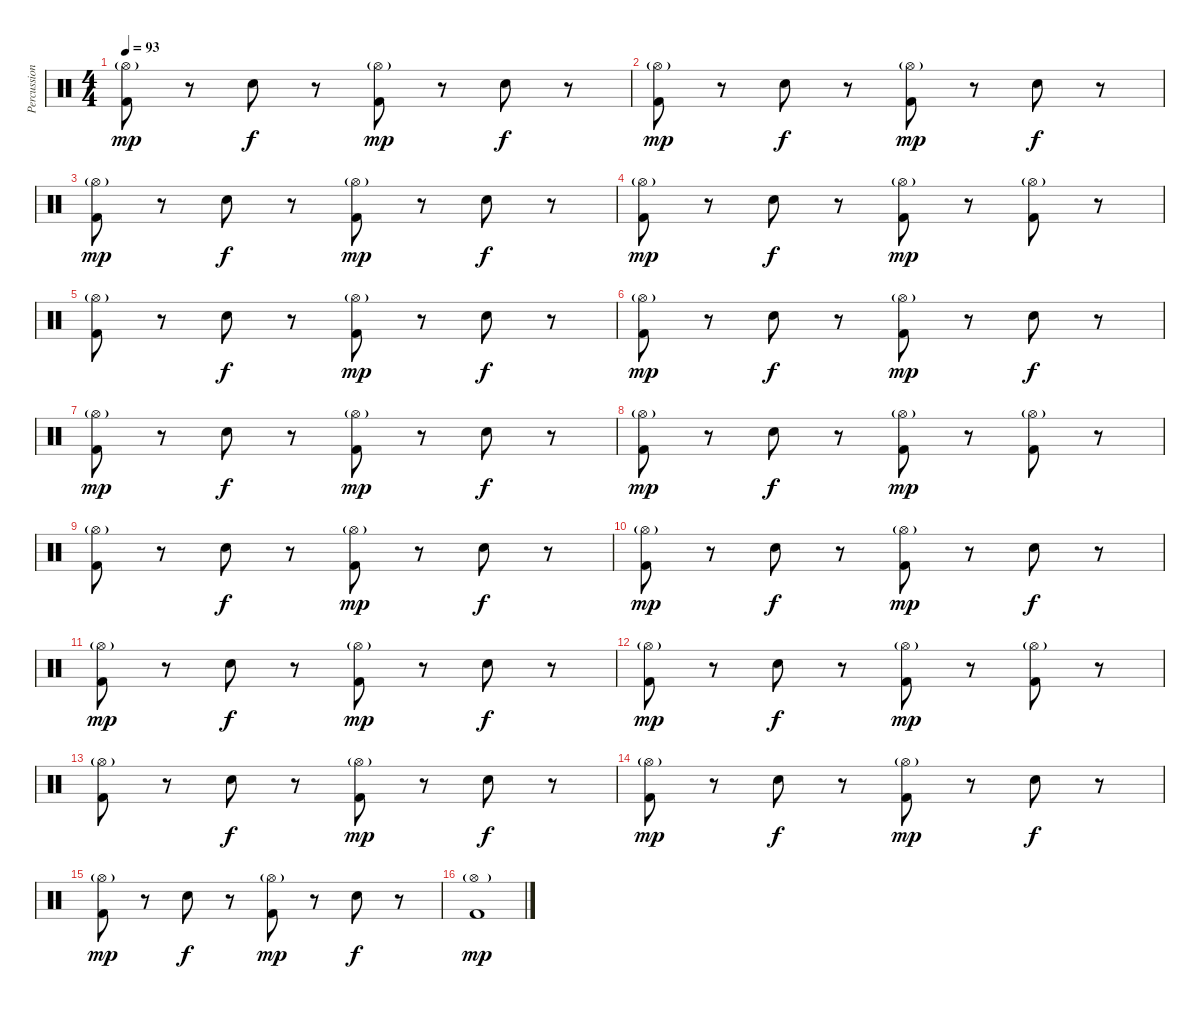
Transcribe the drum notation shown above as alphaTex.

\track ("Percussion" "Percussion") {instrument percussion}
\staff {score}
\articulation defaults
\ts (4 4)
\tempo 93
\clef neutral
\ks c
("Hi-Hat (open)"{g} "Kick (hit) 2").8{dy mp} r.8 "Snare (hit) 2".8{dy f} r.8 ("Hi-Hat (open)"{g} "Kick (hit) 2").8{dy mp} r.8 "Snare (hit) 2".8{dy f} r.8 |
("Hi-Hat (open)"{g} "Kick (hit) 2").8{dy mp} r.8 "Snare (hit) 2".8{dy f} r.8 ("Hi-Hat (open)"{g} "Kick (hit) 2").8{dy mp} r.8 "Snare (hit) 2".8{dy f} r.8 |
("Hi-Hat (open)"{g} "Kick (hit) 2").8{dy mp} r.8 "Snare (hit) 2".8{dy f} r.8 ("Hi-Hat (open)"{g} "Kick (hit) 2").8{dy mp} r.8 "Snare (hit) 2".8{dy f} r.8 |
("Hi-Hat (open)"{g} "Kick (hit) 2").8{dy mp} r.8 "Snare (hit) 2".8{dy f} r.8 ("Hi-Hat (open)"{g} "Kick (hit) 2").8{dy mp} r.8 ("Hi-Hat (open)"{g} "Kick (hit) 2").8 r.8 |
("Hi-Hat (open)"{g} "Kick (hit) 2").8 r.8 "Snare (hit) 2".8{dy f} r.8 ("Hi-Hat (open)"{g} "Kick (hit) 2").8{dy mp} r.8 "Snare (hit) 2".8{dy f} r.8 |
("Hi-Hat (open)"{g} "Kick (hit) 2").8{dy mp} r.8 "Snare (hit) 2".8{dy f} r.8 ("Hi-Hat (open)"{g} "Kick (hit) 2").8{dy mp} r.8 "Snare (hit) 2".8{dy f} r.8 |
("Hi-Hat (open)"{g} "Kick (hit) 2").8{dy mp} r.8 "Snare (hit) 2".8{dy f} r.8 ("Hi-Hat (open)"{g} "Kick (hit) 2").8{dy mp} r.8 "Snare (hit) 2".8{dy f} r.8 |
("Hi-Hat (open)"{g} "Kick (hit) 2").8{dy mp} r.8 "Snare (hit) 2".8{dy f} r.8 ("Hi-Hat (open)"{g} "Kick (hit) 2").8{dy mp} r.8 ("Hi-Hat (open)"{g} "Kick (hit) 2").8 r.8 |
("Hi-Hat (open)"{g} "Kick (hit) 2").8 r.8 "Snare (hit) 2".8{dy f} r.8 ("Hi-Hat (open)"{g} "Kick (hit) 2").8{dy mp} r.8 "Snare (hit) 2".8{dy f} r.8 |
("Hi-Hat (open)"{g} "Kick (hit) 2").8{dy mp} r.8 "Snare (hit) 2".8{dy f} r.8 ("Hi-Hat (open)"{g} "Kick (hit) 2").8{dy mp} r.8 "Snare (hit) 2".8{dy f} r.8 |
("Hi-Hat (open)"{g} "Kick (hit) 2").8{dy mp} r.8 "Snare (hit) 2".8{dy f} r.8 ("Hi-Hat (open)"{g} "Kick (hit) 2").8{dy mp} r.8 "Snare (hit) 2".8{dy f} r.8 |
("Hi-Hat (open)"{g} "Kick (hit) 2").8{dy mp} r.8 "Snare (hit) 2".8{dy f} r.8 ("Hi-Hat (open)"{g} "Kick (hit) 2").8{dy mp} r.8 ("Hi-Hat (open)"{g} "Kick (hit) 2").8 r.8 |
("Hi-Hat (open)"{g} "Kick (hit) 2").8 r.8 "Snare (hit) 2".8{dy f} r.8 ("Hi-Hat (open)"{g} "Kick (hit) 2").8{dy mp} r.8 "Snare (hit) 2".8{dy f} r.8 |
("Hi-Hat (open)"{g} "Kick (hit) 2").8{dy mp} r.8 "Snare (hit) 2".8{dy f} r.8 ("Hi-Hat (open)"{g} "Kick (hit) 2").8{dy mp} r.8 "Snare (hit) 2".8{dy f} r.8 |
("Hi-Hat (open)"{g} "Kick (hit) 2").8{dy mp} r.8 "Snare (hit) 2".8{dy f} r.8 ("Hi-Hat (open)"{g} "Kick (hit) 2").8{dy mp} r.8 "Snare (hit) 2".8{dy f} r.8 |
("Hi-Hat (open)"{g} "Kick (hit) 2").1{dy mp}
